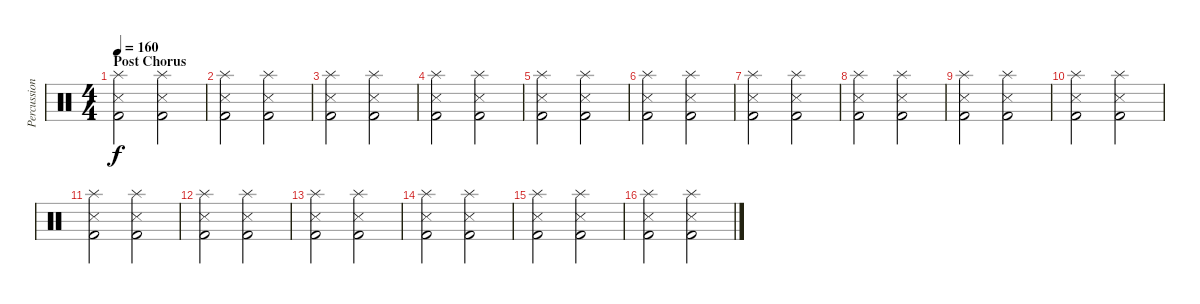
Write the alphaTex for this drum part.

\track ("Percussion" "Percussion") {instrument percussion}
\staff {score}
\articulation defaults
\ts (4 4)
\section ("" "Post Chorus")
\tempo 160
\clef neutral
\ks c
("Splash (hit)" "Kick (hit) 2" "Metronome (hit)").2{dy f} ("Splash (hit)" "Kick (hit) 2" "Metronome (hit)").2 |
("Splash (hit)" "Kick (hit) 2" "Metronome (hit)").2 ("Splash (hit)" "Kick (hit) 2" "Metronome (hit)").2 |
("Splash (hit)" "Kick (hit) 2" "Metronome (hit)").2 ("Splash (hit)" "Kick (hit) 2" "Metronome (hit)").2 |
("Splash (hit)" "Kick (hit) 2" "Metronome (hit)").2 ("Splash (hit)" "Kick (hit) 2" "Metronome (hit)").2 |
("Splash (hit)" "Kick (hit) 2" "Metronome (hit)").2 ("Splash (hit)" "Kick (hit) 2" "Metronome (hit)").2 |
("Splash (hit)" "Kick (hit) 2" "Metronome (hit)").2 ("Splash (hit)" "Kick (hit) 2" "Metronome (hit)").2 |
("Splash (hit)" "Kick (hit) 2" "Metronome (hit)").2 ("Splash (hit)" "Kick (hit) 2" "Metronome (hit)").2 |
("Splash (hit)" "Kick (hit) 2" "Metronome (hit)").2 ("Splash (hit)" "Kick (hit) 2" "Metronome (hit)").2 |
("Splash (hit)" "Kick (hit) 2" "Metronome (hit)").2 ("Splash (hit)" "Kick (hit) 2" "Metronome (hit)").2 |
("Splash (hit)" "Kick (hit) 2" "Metronome (hit)").2 ("Splash (hit)" "Kick (hit) 2" "Metronome (hit)").2 |
("Splash (hit)" "Kick (hit) 2" "Metronome (hit)").2 ("Splash (hit)" "Kick (hit) 2" "Metronome (hit)").2 |
("Splash (hit)" "Kick (hit) 2" "Metronome (hit)").2 ("Splash (hit)" "Kick (hit) 2" "Metronome (hit)").2 |
("Splash (hit)" "Kick (hit) 2" "Metronome (hit)").2 ("Splash (hit)" "Kick (hit) 2" "Metronome (hit)").2 |
("Splash (hit)" "Kick (hit) 2" "Metronome (hit)").2 ("Splash (hit)" "Kick (hit) 2" "Metronome (hit)").2 |
("Splash (hit)" "Kick (hit) 2" "Metronome (hit)").2 ("Splash (hit)" "Kick (hit) 2" "Metronome (hit)").2 |
("Splash (hit)" "Kick (hit) 2" "Metronome (hit)").2 ("Splash (hit)" "Kick (hit) 2" "Metronome (hit)").2
